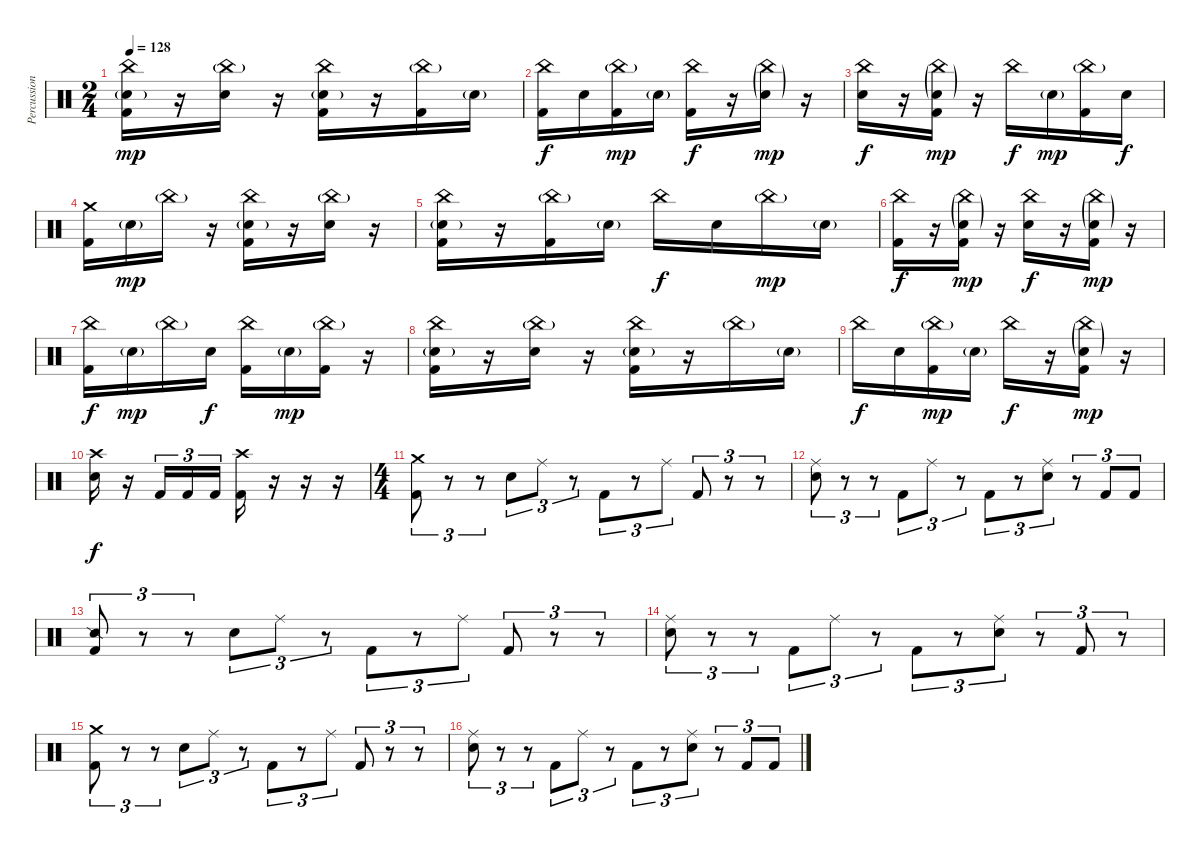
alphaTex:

\track ("Percussion" "Percussion") {instrument percussion}
\staff {score}
\articulation defaults
\ts (2 4)
\tempo 128
\clef neutral
\ks c
("China (hit)" "Snare (hit) 2"{g} "Kick (hit) 2").16{dy mp} r.16 ("China (hit)"{g} "Snare (hit) 2").16 r.16 ("China (hit)" "Snare (hit) 2"{g} "Kick (hit) 2").16 r.16 ("China (hit)"{g} "Kick (hit) 2").16 "Snare (hit) 2"{g}.16 |
("China (hit)" "Kick (hit) 2").16{dy f} "Snare (hit) 2".16 ("China (hit)"{g} "Kick (hit) 2").16{dy mp} "Snare (hit) 2"{g}.16 ("China (hit)" "Kick (hit) 2").16{dy f} r.16 ("China (hit)"{g} "Snare (hit) 2"{g}).16{dy mp} r.16 |
("China (hit)" "Snare (hit) 2").16{dy f} r.16 ("China (hit)"{g} "Snare (hit) 2"{g} "Kick (hit) 2").16{dy mp} r.16 "China (hit)".16{dy f} "Snare (hit) 2"{g}.16{dy mp} ("China (hit)"{g} "Kick (hit) 2").16 "Snare (hit) 2".16{dy f} |
("Crash medium (hit)" "Kick (hit) 2").16 "Snare (hit) 2"{g}.16{dy mp} "China (hit)"{g}.16 r.16 ("China (hit)" "Snare (hit) 2"{g} "Kick (hit) 2").16 r.16 ("China (hit)"{g} "Snare (hit) 2").16 r.16 |
("China (hit)" "Snare (hit) 2"{g} "Kick (hit) 2").16 r.16 ("China (hit)"{g} "Kick (hit) 2").16 "Snare (hit) 2"{g}.16 "China (hit)".16{dy f} "Snare (hit) 2".16 "China (hit)"{g}.16{dy mp} "Snare (hit) 2"{g}.16 |
("China (hit)" "Kick (hit) 2").16{dy f} r.16 ("China (hit)"{g} "Snare (hit) 2"{g} "Kick (hit) 2").16{dy mp} r.16 ("China (hit)" "Snare (hit) 2").16{dy f} r.16 ("China (hit)"{g} "Snare (hit) 2"{g} "Kick (hit) 2").16{dy mp} r.16 |
("China (hit)" "Kick (hit) 2").16{dy f} "Snare (hit) 2"{g}.16{dy mp} "China (hit)"{g}.16 "Snare (hit) 2".16{dy f} ("China (hit)" "Kick (hit) 2").16 "Snare (hit) 2"{g}.16{dy mp} ("China (hit)"{g} "Kick (hit) 2").16 r.16 |
("China (hit)" "Snare (hit) 2"{g} "Kick (hit) 2").16 r.16 ("China (hit)"{g} "Snare (hit) 2").16 r.16 ("China (hit)" "Snare (hit) 2"{g} "Kick (hit) 2").16 r.16 "China (hit)"{g}.16 "Snare (hit) 2"{g}.16 |
"China (hit)".16{dy f} "Snare (hit) 2".16 ("China (hit)"{g} "Kick (hit) 2").16{dy mp} "Snare (hit) 2"{g}.16 "China (hit)".16{dy f} r.16 ("China (hit)"{g} "Snare (hit) 2"{g} "Kick (hit) 2").16{dy mp} r.16 |
("Crash high (hit)" "Snare (hit) 2").16{dy f} r.16 "Kick (hit) 2".16{tu (3 2)} "Kick (hit) 2".16{tu (3 2)} "Kick (hit) 2".16{tu (3 2)} ("Crash high (hit)" "Kick (hit) 2").16 r.16 r.16 r.16 |
\ts (4 4)
("Crash medium (hit)" "Kick (hit) 2").8{tu (3 2)} r.8{tu (3 2)} r.8{tu (3 2)} "Snare (hit) 2".8{tu (3 2)} "Ride (middle)".8{tu (3 2)} r.8{tu (3 2)} "Kick (hit) 2".8{tu (3 2)} r.8{tu (3 2)} "Ride (middle)".8{tu (3 2)} "Kick (hit) 2".8{tu (3 2)} r.8{tu (3 2)} r.8{tu (3 2)} |
("Ride (middle)" "Snare (hit) 2").8{tu (3 2)} r.8{tu (3 2)} r.8{tu (3 2)} "Kick (hit) 2".8{tu (3 2)} "Ride (middle)".8{tu (3 2)} r.8{tu (3 2)} "Kick (hit) 2".8{tu (3 2)} r.8{tu (3 2)} ("Ride (middle)" "Snare (hit) 2").8{tu (3 2)} r.8{tu (3 2)} "Kick (hit) 2".8{tu (3 2)} "Kick (hit) 2".8{tu (3 2)} |
("Snare (side stick) 2" "Kick (hit) 2").8{tu (3 2)} r.8{tu (3 2)} r.8{tu (3 2)} "Snare (hit) 2".8{tu (3 2)} "Ride (middle)".8{tu (3 2)} r.8{tu (3 2)} "Kick (hit) 2".8{tu (3 2)} r.8{tu (3 2)} "Ride (middle)".8{tu (3 2)} "Kick (hit) 2".8{tu (3 2)} r.8{tu (3 2)} r.8{tu (3 2)} |
("Ride (middle)" "Snare (hit) 2").8{tu (3 2)} r.8{tu (3 2)} r.8{tu (3 2)} "Kick (hit) 2".8{tu (3 2)} "Ride (middle)".8{tu (3 2)} r.8{tu (3 2)} "Kick (hit) 2".8{tu (3 2)} r.8{tu (3 2)} ("Ride (middle)" "Snare (hit) 2").8{tu (3 2)} r.8{tu (3 2)} "Kick (hit) 2".8{tu (3 2)} r.8{tu (3 2)} |
("Crash medium (hit)" "Kick (hit) 2").8{tu (3 2)} r.8{tu (3 2)} r.8{tu (3 2)} "Snare (hit) 2".8{tu (3 2)} "Ride (middle)".8{tu (3 2)} r.8{tu (3 2)} "Kick (hit) 2".8{tu (3 2)} r.8{tu (3 2)} "Ride (middle)".8{tu (3 2)} "Kick (hit) 2".8{tu (3 2)} r.8{tu (3 2)} r.8{tu (3 2)} |
("Ride (middle)" "Snare (hit) 2").8{tu (3 2)} r.8{tu (3 2)} r.8{tu (3 2)} "Kick (hit) 2".8{tu (3 2)} "Ride (middle)".8{tu (3 2)} r.8{tu (3 2)} "Kick (hit) 2".8{tu (3 2)} r.8{tu (3 2)} ("Ride (middle)" "Snare (hit) 2").8{tu (3 2)} r.8{tu (3 2)} "Kick (hit) 2".8{tu (3 2)} "Kick (hit) 2".8{tu (3 2)}
